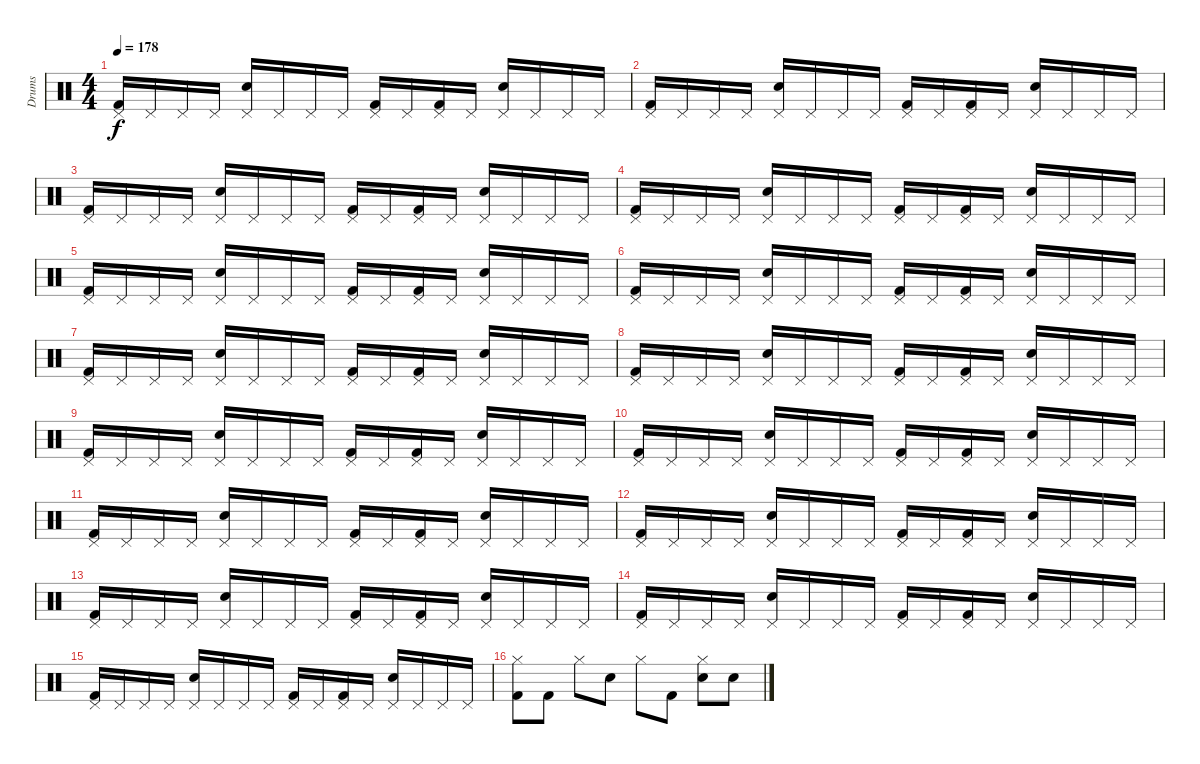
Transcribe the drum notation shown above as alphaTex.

\track ("Drums" "Drums") {instrument percussion}
\staff {score}
\articulation defaults
\ts (4 4)
\tempo 178
\clef neutral
\ks c
("Kick (hit) 2" "Pedal Hi-Hat (hit)").16{dy f} "Pedal Hi-Hat (hit)".16 "Pedal Hi-Hat (hit)".16 "Pedal Hi-Hat (hit)".16 ("Snare (hit) 2" "Pedal Hi-Hat (hit)").16 "Pedal Hi-Hat (hit)".16 "Pedal Hi-Hat (hit)".16 "Pedal Hi-Hat (hit)".16 ("Kick (hit) 2" "Pedal Hi-Hat (hit)").16 "Pedal Hi-Hat (hit)".16 ("Kick (hit) 2" "Pedal Hi-Hat (hit)").16 "Pedal Hi-Hat (hit)".16 ("Snare (hit) 2" "Pedal Hi-Hat (hit)").16 "Pedal Hi-Hat (hit)".16 "Pedal Hi-Hat (hit)".16 "Pedal Hi-Hat (hit)".16 |
("Kick (hit) 2" "Pedal Hi-Hat (hit)").16 "Pedal Hi-Hat (hit)".16 "Pedal Hi-Hat (hit)".16 "Pedal Hi-Hat (hit)".16 ("Snare (hit) 2" "Pedal Hi-Hat (hit)").16 "Pedal Hi-Hat (hit)".16 "Pedal Hi-Hat (hit)".16 "Pedal Hi-Hat (hit)".16 ("Kick (hit) 2" "Pedal Hi-Hat (hit)").16 "Pedal Hi-Hat (hit)".16 ("Kick (hit) 2" "Pedal Hi-Hat (hit)").16 "Pedal Hi-Hat (hit)".16 ("Snare (hit) 2" "Pedal Hi-Hat (hit)").16 "Pedal Hi-Hat (hit)".16 "Pedal Hi-Hat (hit)".16 "Pedal Hi-Hat (hit)".16 |
("Kick (hit) 2" "Pedal Hi-Hat (hit)").16 "Pedal Hi-Hat (hit)".16 "Pedal Hi-Hat (hit)".16 "Pedal Hi-Hat (hit)".16 ("Snare (hit) 2" "Pedal Hi-Hat (hit)").16 "Pedal Hi-Hat (hit)".16 "Pedal Hi-Hat (hit)".16 "Pedal Hi-Hat (hit)".16 ("Kick (hit) 2" "Pedal Hi-Hat (hit)").16 "Pedal Hi-Hat (hit)".16 ("Kick (hit) 2" "Pedal Hi-Hat (hit)").16 "Pedal Hi-Hat (hit)".16 ("Snare (hit) 2" "Pedal Hi-Hat (hit)").16 "Pedal Hi-Hat (hit)".16 "Pedal Hi-Hat (hit)".16 "Pedal Hi-Hat (hit)".16 |
("Kick (hit) 2" "Pedal Hi-Hat (hit)").16 "Pedal Hi-Hat (hit)".16 "Pedal Hi-Hat (hit)".16 "Pedal Hi-Hat (hit)".16 ("Snare (hit) 2" "Pedal Hi-Hat (hit)").16 "Pedal Hi-Hat (hit)".16 "Pedal Hi-Hat (hit)".16 "Pedal Hi-Hat (hit)".16 ("Kick (hit) 2" "Pedal Hi-Hat (hit)").16 "Pedal Hi-Hat (hit)".16 ("Kick (hit) 2" "Pedal Hi-Hat (hit)").16 "Pedal Hi-Hat (hit)".16 ("Snare (hit) 2" "Pedal Hi-Hat (hit)").16 "Pedal Hi-Hat (hit)".16 "Pedal Hi-Hat (hit)".16 "Pedal Hi-Hat (hit)".16 |
("Kick (hit) 2" "Pedal Hi-Hat (hit)").16 "Pedal Hi-Hat (hit)".16 "Pedal Hi-Hat (hit)".16 "Pedal Hi-Hat (hit)".16 ("Snare (hit) 2" "Pedal Hi-Hat (hit)").16 "Pedal Hi-Hat (hit)".16 "Pedal Hi-Hat (hit)".16 "Pedal Hi-Hat (hit)".16 ("Kick (hit) 2" "Pedal Hi-Hat (hit)").16 "Pedal Hi-Hat (hit)".16 ("Kick (hit) 2" "Pedal Hi-Hat (hit)").16 "Pedal Hi-Hat (hit)".16 ("Snare (hit) 2" "Pedal Hi-Hat (hit)").16 "Pedal Hi-Hat (hit)".16 "Pedal Hi-Hat (hit)".16 "Pedal Hi-Hat (hit)".16 |
("Kick (hit) 2" "Pedal Hi-Hat (hit)").16 "Pedal Hi-Hat (hit)".16 "Pedal Hi-Hat (hit)".16 "Pedal Hi-Hat (hit)".16 ("Snare (hit) 2" "Pedal Hi-Hat (hit)").16 "Pedal Hi-Hat (hit)".16 "Pedal Hi-Hat (hit)".16 "Pedal Hi-Hat (hit)".16 ("Kick (hit) 2" "Pedal Hi-Hat (hit)").16 "Pedal Hi-Hat (hit)".16 ("Kick (hit) 2" "Pedal Hi-Hat (hit)").16 "Pedal Hi-Hat (hit)".16 ("Snare (hit) 2" "Pedal Hi-Hat (hit)").16 "Pedal Hi-Hat (hit)".16 "Pedal Hi-Hat (hit)".16 "Pedal Hi-Hat (hit)".16 |
("Kick (hit) 2" "Pedal Hi-Hat (hit)").16 "Pedal Hi-Hat (hit)".16 "Pedal Hi-Hat (hit)".16 "Pedal Hi-Hat (hit)".16 ("Snare (hit) 2" "Pedal Hi-Hat (hit)").16 "Pedal Hi-Hat (hit)".16 "Pedal Hi-Hat (hit)".16 "Pedal Hi-Hat (hit)".16 ("Kick (hit) 2" "Pedal Hi-Hat (hit)").16 "Pedal Hi-Hat (hit)".16 ("Kick (hit) 2" "Pedal Hi-Hat (hit)").16 "Pedal Hi-Hat (hit)".16 ("Snare (hit) 2" "Pedal Hi-Hat (hit)").16 "Pedal Hi-Hat (hit)".16 "Pedal Hi-Hat (hit)".16 "Pedal Hi-Hat (hit)".16 |
("Kick (hit) 2" "Pedal Hi-Hat (hit)").16 "Pedal Hi-Hat (hit)".16 "Pedal Hi-Hat (hit)".16 "Pedal Hi-Hat (hit)".16 ("Snare (hit) 2" "Pedal Hi-Hat (hit)").16 "Pedal Hi-Hat (hit)".16 "Pedal Hi-Hat (hit)".16 "Pedal Hi-Hat (hit)".16 ("Kick (hit) 2" "Pedal Hi-Hat (hit)").16 "Pedal Hi-Hat (hit)".16 ("Kick (hit) 2" "Pedal Hi-Hat (hit)").16 "Pedal Hi-Hat (hit)".16 ("Snare (hit) 2" "Pedal Hi-Hat (hit)").16 "Pedal Hi-Hat (hit)".16 "Pedal Hi-Hat (hit)".16 "Pedal Hi-Hat (hit)".16 |
("Kick (hit) 2" "Pedal Hi-Hat (hit)").16 "Pedal Hi-Hat (hit)".16 "Pedal Hi-Hat (hit)".16 "Pedal Hi-Hat (hit)".16 ("Snare (hit) 2" "Pedal Hi-Hat (hit)").16 "Pedal Hi-Hat (hit)".16 "Pedal Hi-Hat (hit)".16 "Pedal Hi-Hat (hit)".16 ("Kick (hit) 2" "Pedal Hi-Hat (hit)").16 "Pedal Hi-Hat (hit)".16 ("Kick (hit) 2" "Pedal Hi-Hat (hit)").16 "Pedal Hi-Hat (hit)".16 ("Snare (hit) 2" "Pedal Hi-Hat (hit)").16 "Pedal Hi-Hat (hit)".16 "Pedal Hi-Hat (hit)".16 "Pedal Hi-Hat (hit)".16 |
("Kick (hit) 2" "Pedal Hi-Hat (hit)").16 "Pedal Hi-Hat (hit)".16 "Pedal Hi-Hat (hit)".16 "Pedal Hi-Hat (hit)".16 ("Snare (hit) 2" "Pedal Hi-Hat (hit)").16 "Pedal Hi-Hat (hit)".16 "Pedal Hi-Hat (hit)".16 "Pedal Hi-Hat (hit)".16 ("Kick (hit) 2" "Pedal Hi-Hat (hit)").16 "Pedal Hi-Hat (hit)".16 ("Kick (hit) 2" "Pedal Hi-Hat (hit)").16 "Pedal Hi-Hat (hit)".16 ("Snare (hit) 2" "Pedal Hi-Hat (hit)").16 "Pedal Hi-Hat (hit)".16 "Pedal Hi-Hat (hit)".16 "Pedal Hi-Hat (hit)".16 |
("Kick (hit) 2" "Pedal Hi-Hat (hit)").16 "Pedal Hi-Hat (hit)".16 "Pedal Hi-Hat (hit)".16 "Pedal Hi-Hat (hit)".16 ("Snare (hit) 2" "Pedal Hi-Hat (hit)").16 "Pedal Hi-Hat (hit)".16 "Pedal Hi-Hat (hit)".16 "Pedal Hi-Hat (hit)".16 ("Kick (hit) 2" "Pedal Hi-Hat (hit)").16 "Pedal Hi-Hat (hit)".16 ("Kick (hit) 2" "Pedal Hi-Hat (hit)").16 "Pedal Hi-Hat (hit)".16 ("Snare (hit) 2" "Pedal Hi-Hat (hit)").16 "Pedal Hi-Hat (hit)".16 "Pedal Hi-Hat (hit)".16 "Pedal Hi-Hat (hit)".16 |
("Kick (hit) 2" "Pedal Hi-Hat (hit)").16 "Pedal Hi-Hat (hit)".16 "Pedal Hi-Hat (hit)".16 "Pedal Hi-Hat (hit)".16 ("Snare (hit) 2" "Pedal Hi-Hat (hit)").16 "Pedal Hi-Hat (hit)".16 "Pedal Hi-Hat (hit)".16 "Pedal Hi-Hat (hit)".16 ("Kick (hit) 2" "Pedal Hi-Hat (hit)").16 "Pedal Hi-Hat (hit)".16 ("Kick (hit) 2" "Pedal Hi-Hat (hit)").16 "Pedal Hi-Hat (hit)".16 ("Snare (hit) 2" "Pedal Hi-Hat (hit)").16 "Pedal Hi-Hat (hit)".16 "Pedal Hi-Hat (hit)".16 "Pedal Hi-Hat (hit)".16 |
("Kick (hit) 2" "Pedal Hi-Hat (hit)").16 "Pedal Hi-Hat (hit)".16 "Pedal Hi-Hat (hit)".16 "Pedal Hi-Hat (hit)".16 ("Snare (hit) 2" "Pedal Hi-Hat (hit)").16 "Pedal Hi-Hat (hit)".16 "Pedal Hi-Hat (hit)".16 "Pedal Hi-Hat (hit)".16 ("Kick (hit) 2" "Pedal Hi-Hat (hit)").16 "Pedal Hi-Hat (hit)".16 ("Kick (hit) 2" "Pedal Hi-Hat (hit)").16 "Pedal Hi-Hat (hit)".16 ("Snare (hit) 2" "Pedal Hi-Hat (hit)").16 "Pedal Hi-Hat (hit)".16 "Pedal Hi-Hat (hit)".16 "Pedal Hi-Hat (hit)".16 |
("Kick (hit) 2" "Pedal Hi-Hat (hit)").16 "Pedal Hi-Hat (hit)".16 "Pedal Hi-Hat (hit)".16 "Pedal Hi-Hat (hit)".16 ("Snare (hit) 2" "Pedal Hi-Hat (hit)").16 "Pedal Hi-Hat (hit)".16 "Pedal Hi-Hat (hit)".16 "Pedal Hi-Hat (hit)".16 ("Kick (hit) 2" "Pedal Hi-Hat (hit)").16 "Pedal Hi-Hat (hit)".16 ("Kick (hit) 2" "Pedal Hi-Hat (hit)").16 "Pedal Hi-Hat (hit)".16 ("Snare (hit) 2" "Pedal Hi-Hat (hit)").16 "Pedal Hi-Hat (hit)".16 "Pedal Hi-Hat (hit)".16 "Pedal Hi-Hat (hit)".16 |
("Kick (hit) 2" "Pedal Hi-Hat (hit)").16 "Pedal Hi-Hat (hit)".16 "Pedal Hi-Hat (hit)".16 "Pedal Hi-Hat (hit)".16 ("Snare (hit) 2" "Pedal Hi-Hat (hit)").16 "Pedal Hi-Hat (hit)".16 "Pedal Hi-Hat (hit)".16 "Pedal Hi-Hat (hit)".16 ("Kick (hit) 2" "Pedal Hi-Hat (hit)").16 "Pedal Hi-Hat (hit)".16 ("Kick (hit) 2" "Pedal Hi-Hat (hit)").16 "Pedal Hi-Hat (hit)".16 ("Snare (hit) 2" "Pedal Hi-Hat (hit)").16 "Pedal Hi-Hat (hit)".16 "Pedal Hi-Hat (hit)".16 "Pedal Hi-Hat (hit)".16 |
("Kick (hit) 2" "Hi-Hat (closed)").8 "Kick (hit) 2".8 "Hi-Hat (closed)".8 "Snare (hit) 2".8 "Hi-Hat (closed)".8 "Kick (hit) 2".8 ("Snare (hit) 2" "Hi-Hat (closed)").8 "Snare (hit) 2".8
